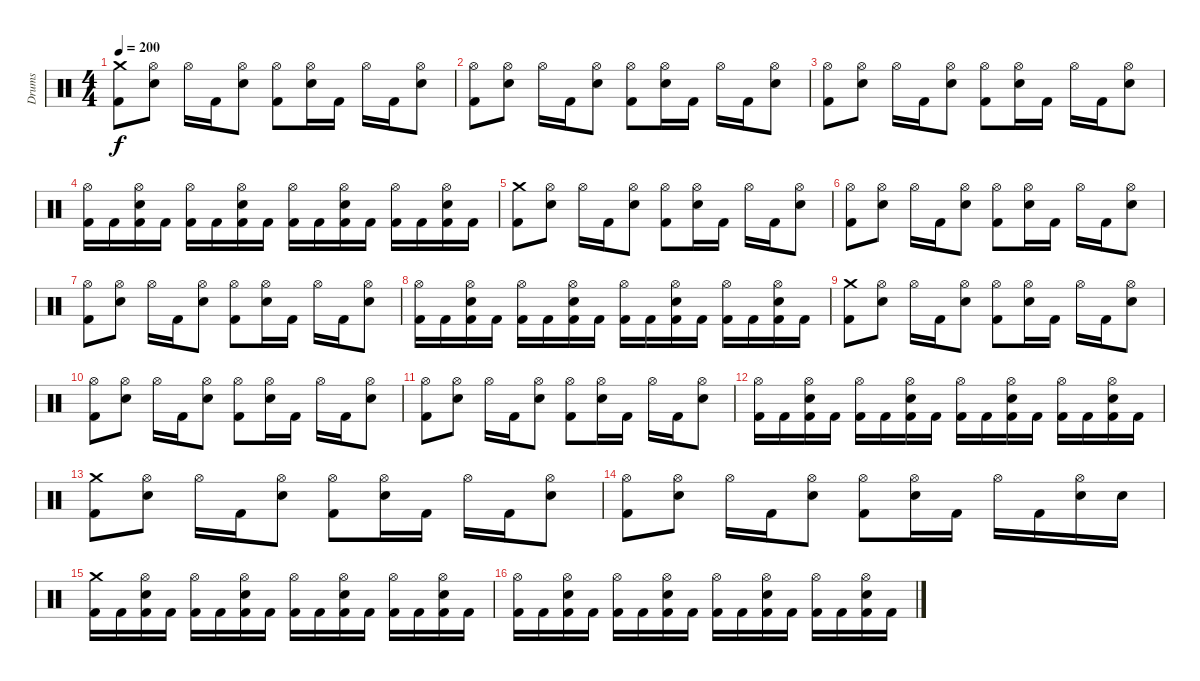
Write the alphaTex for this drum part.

\track ("Drums" "Drums") {instrument percussion}
\staff {score}
\articulation defaults
\ts (4 4)
\tempo 200
\clef neutral
\ks c
("Crash medium (hit)" "Kick (hit) 2").8{dy f} ("Hi-Hat (open)" "Snare (hit) 2").8 "Hi-Hat (open)".16 "Kick (hit) 2".16 ("Hi-Hat (open)" "Snare (hit) 2").8 ("Hi-Hat (open)" "Kick (hit) 2").8 ("Hi-Hat (open)" "Snare (hit) 2").16 "Kick (hit) 2".16 "Hi-Hat (open)".16 "Kick (hit) 2".16 ("Hi-Hat (open)" "Snare (hit) 2").8 |
("Hi-Hat (open)" "Kick (hit) 2").8 ("Hi-Hat (open)" "Snare (hit) 2").8 "Hi-Hat (open)".16 "Kick (hit) 2".16 ("Hi-Hat (open)" "Snare (hit) 2").8 ("Hi-Hat (open)" "Kick (hit) 2").8 ("Hi-Hat (open)" "Snare (hit) 2").16 "Kick (hit) 2".16 "Hi-Hat (open)".16 "Kick (hit) 2".16 ("Hi-Hat (open)" "Snare (hit) 2").8 |
("Hi-Hat (open)" "Kick (hit) 2").8 ("Hi-Hat (open)" "Snare (hit) 2").8 "Hi-Hat (open)".16 "Kick (hit) 2".16 ("Hi-Hat (open)" "Snare (hit) 2").8 ("Hi-Hat (open)" "Kick (hit) 2").8 ("Hi-Hat (open)" "Snare (hit) 2").16 "Kick (hit) 2".16 "Hi-Hat (open)".16 "Kick (hit) 2".16 ("Hi-Hat (open)" "Snare (hit) 2").8 |
("Hi-Hat (open)" "Kick (hit) 2").16 "Kick (hit) 2".16 ("Hi-Hat (open)" "Snare (hit) 2" "Kick (hit) 2").16 "Kick (hit) 2".16 ("Hi-Hat (open)" "Kick (hit) 2").16 "Kick (hit) 2".16 ("Hi-Hat (open)" "Snare (hit) 2" "Kick (hit) 2").16 "Kick (hit) 2".16 ("Hi-Hat (open)" "Kick (hit) 2").16 "Kick (hit) 2".16 ("Hi-Hat (open)" "Snare (hit) 2" "Kick (hit) 2").16 "Kick (hit) 2".16 ("Hi-Hat (open)" "Kick (hit) 2").16 "Kick (hit) 2".16 ("Hi-Hat (open)" "Snare (hit) 2" "Kick (hit) 2").16 "Kick (hit) 2".16 |
("Crash medium (hit)" "Kick (hit) 2").8 ("Hi-Hat (open)" "Snare (hit) 2").8 "Hi-Hat (open)".16 "Kick (hit) 2".16 ("Hi-Hat (open)" "Snare (hit) 2").8 ("Hi-Hat (open)" "Kick (hit) 2").8 ("Hi-Hat (open)" "Snare (hit) 2").16 "Kick (hit) 2".16 "Hi-Hat (open)".16 "Kick (hit) 2".16 ("Hi-Hat (open)" "Snare (hit) 2").8 |
("Hi-Hat (open)" "Kick (hit) 2").8 ("Hi-Hat (open)" "Snare (hit) 2").8 "Hi-Hat (open)".16 "Kick (hit) 2".16 ("Hi-Hat (open)" "Snare (hit) 2").8 ("Hi-Hat (open)" "Kick (hit) 2").8 ("Hi-Hat (open)" "Snare (hit) 2").16 "Kick (hit) 2".16 "Hi-Hat (open)".16 "Kick (hit) 2".16 ("Hi-Hat (open)" "Snare (hit) 2").8 |
("Hi-Hat (open)" "Kick (hit) 2").8 ("Hi-Hat (open)" "Snare (hit) 2").8 "Hi-Hat (open)".16 "Kick (hit) 2".16 ("Hi-Hat (open)" "Snare (hit) 2").8 ("Hi-Hat (open)" "Kick (hit) 2").8 ("Hi-Hat (open)" "Snare (hit) 2").16 "Kick (hit) 2".16 "Hi-Hat (open)".16 "Kick (hit) 2".16 ("Hi-Hat (open)" "Snare (hit) 2").8 |
("Hi-Hat (open)" "Kick (hit) 2").16 "Kick (hit) 2".16 ("Hi-Hat (open)" "Snare (hit) 2" "Kick (hit) 2").16 "Kick (hit) 2".16 ("Hi-Hat (open)" "Kick (hit) 2").16 "Kick (hit) 2".16 ("Hi-Hat (open)" "Snare (hit) 2" "Kick (hit) 2").16 "Kick (hit) 2".16 ("Hi-Hat (open)" "Kick (hit) 2").16 "Kick (hit) 2".16 ("Hi-Hat (open)" "Snare (hit) 2" "Kick (hit) 2").16 "Kick (hit) 2".16 ("Hi-Hat (open)" "Kick (hit) 2").16 "Kick (hit) 2".16 ("Hi-Hat (open)" "Snare (hit) 2" "Kick (hit) 2").16 "Kick (hit) 2".16 |
("Crash medium (hit)" "Kick (hit) 2").8 ("Hi-Hat (open)" "Snare (hit) 2").8 "Hi-Hat (open)".16 "Kick (hit) 2".16 ("Hi-Hat (open)" "Snare (hit) 2").8 ("Hi-Hat (open)" "Kick (hit) 2").8 ("Hi-Hat (open)" "Snare (hit) 2").16 "Kick (hit) 2".16 "Hi-Hat (open)".16 "Kick (hit) 2".16 ("Hi-Hat (open)" "Snare (hit) 2").8 |
("Hi-Hat (open)" "Kick (hit) 2").8 ("Hi-Hat (open)" "Snare (hit) 2").8 "Hi-Hat (open)".16 "Kick (hit) 2".16 ("Hi-Hat (open)" "Snare (hit) 2").8 ("Hi-Hat (open)" "Kick (hit) 2").8 ("Hi-Hat (open)" "Snare (hit) 2").16 "Kick (hit) 2".16 "Hi-Hat (open)".16 "Kick (hit) 2".16 ("Hi-Hat (open)" "Snare (hit) 2").8 |
("Hi-Hat (open)" "Kick (hit) 2").8 ("Hi-Hat (open)" "Snare (hit) 2").8 "Hi-Hat (open)".16 "Kick (hit) 2".16 ("Hi-Hat (open)" "Snare (hit) 2").8 ("Hi-Hat (open)" "Kick (hit) 2").8 ("Hi-Hat (open)" "Snare (hit) 2").16 "Kick (hit) 2".16 "Hi-Hat (open)".16 "Kick (hit) 2".16 ("Hi-Hat (open)" "Snare (hit) 2").8 |
("Hi-Hat (open)" "Kick (hit) 2").16 "Kick (hit) 2".16 ("Hi-Hat (open)" "Snare (hit) 2" "Kick (hit) 2").16 "Kick (hit) 2".16 ("Hi-Hat (open)" "Kick (hit) 2").16 "Kick (hit) 2".16 ("Hi-Hat (open)" "Snare (hit) 2" "Kick (hit) 2").16 "Kick (hit) 2".16 ("Hi-Hat (open)" "Kick (hit) 2").16 "Kick (hit) 2".16 ("Hi-Hat (open)" "Snare (hit) 2" "Kick (hit) 2").16 "Kick (hit) 2".16 ("Hi-Hat (open)" "Kick (hit) 2").16 "Kick (hit) 2".16 ("Hi-Hat (open)" "Snare (hit) 2" "Kick (hit) 2").16 "Kick (hit) 2".16 |
("Crash medium (hit)" "Kick (hit) 2").8 ("Hi-Hat (open)" "Snare (hit) 2").8 "Hi-Hat (open)".16 "Kick (hit) 2".16 ("Hi-Hat (open)" "Snare (hit) 2").8 ("Hi-Hat (open)" "Kick (hit) 2").8 ("Hi-Hat (open)" "Snare (hit) 2").16 "Kick (hit) 2".16 "Hi-Hat (open)".16 "Kick (hit) 2".16 ("Hi-Hat (open)" "Snare (hit) 2").8 |
("Hi-Hat (open)" "Kick (hit) 2").8 ("Hi-Hat (open)" "Snare (hit) 2").8 "Hi-Hat (open)".16 "Kick (hit) 2".16 ("Hi-Hat (open)" "Snare (hit) 2").8 ("Hi-Hat (open)" "Kick (hit) 2").8 ("Hi-Hat (open)" "Snare (hit) 2").16 "Kick (hit) 2".16 "Hi-Hat (open)".16 "Kick (hit) 2".16 ("Hi-Hat (open)" "Snare (hit) 2").16 "Snare (hit) 2".16 |
("Crash medium (hit)" "Kick (hit) 2").16 "Kick (hit) 2".16 ("Hi-Hat (open)" "Snare (hit) 2" "Kick (hit) 2").16 "Kick (hit) 2".16 ("Hi-Hat (open)" "Kick (hit) 2").16 "Kick (hit) 2".16 ("Hi-Hat (open)" "Snare (hit) 2" "Kick (hit) 2").16 "Kick (hit) 2".16 ("Hi-Hat (open)" "Kick (hit) 2").16 "Kick (hit) 2".16 ("Hi-Hat (open)" "Snare (hit) 2" "Kick (hit) 2").16 "Kick (hit) 2".16 ("Hi-Hat (open)" "Kick (hit) 2").16 "Kick (hit) 2".16 ("Hi-Hat (open)" "Snare (hit) 2" "Kick (hit) 2").16 "Kick (hit) 2".16 |
("Hi-Hat (open)" "Kick (hit) 2").16 "Kick (hit) 2".16 ("Hi-Hat (open)" "Snare (hit) 2" "Kick (hit) 2").16 "Kick (hit) 2".16 ("Hi-Hat (open)" "Kick (hit) 2").16 "Kick (hit) 2".16 ("Hi-Hat (open)" "Snare (hit) 2" "Kick (hit) 2").16 "Kick (hit) 2".16 ("Hi-Hat (open)" "Kick (hit) 2").16 "Kick (hit) 2".16 ("Hi-Hat (open)" "Snare (hit) 2" "Kick (hit) 2").16 "Kick (hit) 2".16 ("Hi-Hat (open)" "Kick (hit) 2").16 "Kick (hit) 2".16 ("Hi-Hat (open)" "Snare (hit) 2" "Kick (hit) 2").16 "Kick (hit) 2".16
